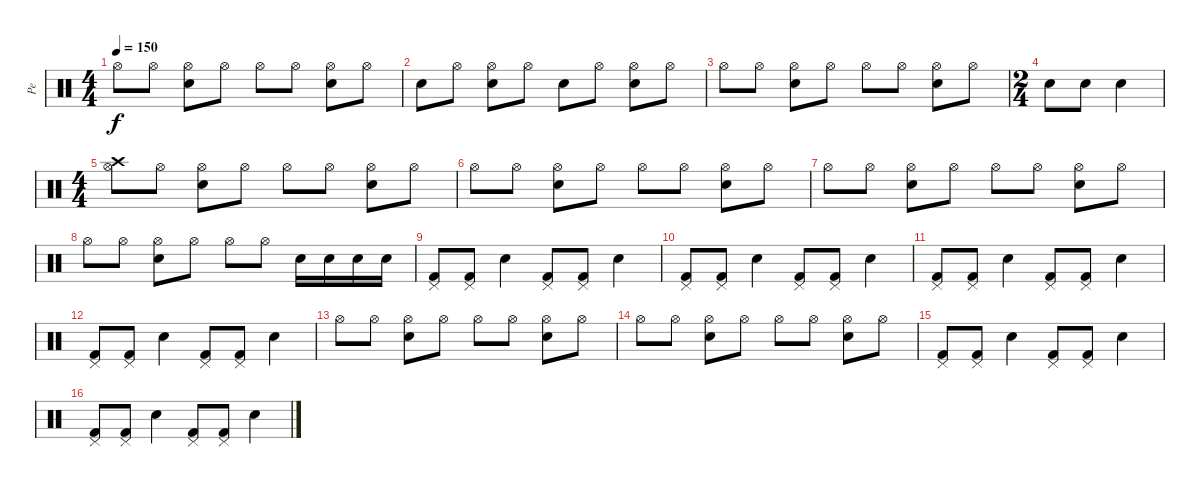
\track ("Pe" "Pe") {instrument percussion}
\staff {score}
\articulation defaults
\ts (4 4)
\tempo 150
\clef neutral
\ks c "Hi-Hat (open)".8{dy f} "Hi-Hat (open)".8
("Electric Snare (hit)" "Hi-Hat (open)").8 "Hi-Hat (open)".8 "Hi-Hat (open)".8 "Hi-Hat (open)".8 ("Electric Snare (hit)" "Hi-Hat (open)").8 "Hi-Hat (open)".8 |
"Electric Snare (hit)".8 "Hi-Hat (open)".8 ("Electric Snare (hit)" "Hi-Hat (open)").8 "Hi-Hat (open)".8 "Electric Snare (hit)".8 "Hi-Hat (open)".8 ("Electric Snare (hit)" "Hi-Hat (open)").8 "Hi-Hat (open)".8 |
"Hi-Hat (open)".8 "Hi-Hat (open)".8 ("Electric Snare (hit)" "Hi-Hat (open)").8 "Hi-Hat (open)".8 "Hi-Hat (open)".8 "Hi-Hat (open)".8 ("Electric Snare (hit)" "Hi-Hat (open)").8 "Hi-Hat (open)".8 |
\ts (2 4)
"Electric Snare (hit)".8 "Electric Snare (hit)".8 "Electric Snare (hit)".4 |
\ts (4 4)
("Hi-Hat (open)" "Crash high (hit)").8 "Hi-Hat (open)".8 ("Electric Snare (hit)" "Hi-Hat (open)").8 "Hi-Hat (open)".8 "Hi-Hat (open)".8 "Hi-Hat (open)".8 ("Electric Snare (hit)" "Hi-Hat (open)").8 "Hi-Hat (open)".8 |
"Hi-Hat (open)".8 "Hi-Hat (open)".8 ("Electric Snare (hit)" "Hi-Hat (open)").8 "Hi-Hat (open)".8 "Hi-Hat (open)".8 "Hi-Hat (open)".8 ("Electric Snare (hit)" "Hi-Hat (open)").8 "Hi-Hat (open)".8 |
"Hi-Hat (open)".8 "Hi-Hat (open)".8 ("Electric Snare (hit)" "Hi-Hat (open)").8 "Hi-Hat (open)".8 "Hi-Hat (open)".8 "Hi-Hat (open)".8 ("Electric Snare (hit)" "Hi-Hat (open)").8 "Hi-Hat (open)".8 |
"Hi-Hat (open)".8 "Hi-Hat (open)".8 ("Electric Snare (hit)" "Hi-Hat (open)").8 "Hi-Hat (open)".8 "Hi-Hat (open)".8 "Hi-Hat (open)".8 "Electric Snare (hit)".16 "Electric Snare (hit)".16 "Electric Snare (hit)".16 "Electric Snare (hit)".16 |
("Kick (hit) 2" "Pedal Hi-Hat (hit)").8 ("Kick (hit) 2" "Pedal Hi-Hat (hit)").8 "Electric Snare (hit)".4 ("Kick (hit) 2" "Pedal Hi-Hat (hit)").8 ("Kick (hit) 2" "Pedal Hi-Hat (hit)").8 "Electric Snare (hit)".4 |
("Kick (hit) 2" "Pedal Hi-Hat (hit)").8 ("Kick (hit) 2" "Pedal Hi-Hat (hit)").8 "Electric Snare (hit)".4 ("Kick (hit) 2" "Pedal Hi-Hat (hit)").8 ("Kick (hit) 2" "Pedal Hi-Hat (hit)").8 "Electric Snare (hit)".4 |
("Kick (hit) 2" "Pedal Hi-Hat (hit)").8 ("Kick (hit) 2" "Pedal Hi-Hat (hit)").8 "Electric Snare (hit)".4 ("Kick (hit) 2" "Pedal Hi-Hat (hit)").8 ("Kick (hit) 2" "Pedal Hi-Hat (hit)").8 "Electric Snare (hit)".4 |
("Kick (hit) 2" "Pedal Hi-Hat (hit)").8 ("Kick (hit) 2" "Pedal Hi-Hat (hit)").8 "Electric Snare (hit)".4 ("Kick (hit) 2" "Pedal Hi-Hat (hit)").8 ("Kick (hit) 2" "Pedal Hi-Hat (hit)").8 "Electric Snare (hit)".4 |
"Hi-Hat (open)".8 "Hi-Hat (open)".8 ("Electric Snare (hit)" "Hi-Hat (open)").8 "Hi-Hat (open)".8 "Hi-Hat (open)".8 "Hi-Hat (open)".8 ("Electric Snare (hit)" "Hi-Hat (open)").8 "Hi-Hat (open)".8 |
"Hi-Hat (open)".8 "Hi-Hat (open)".8 ("Electric Snare (hit)" "Hi-Hat (open)").8 "Hi-Hat (open)".8 "Hi-Hat (open)".8 "Hi-Hat (open)".8 ("Electric Snare (hit)" "Hi-Hat (open)").8 "Hi-Hat (open)".8 |
("Kick (hit) 2" "Pedal Hi-Hat (hit)").8 ("Kick (hit) 2" "Pedal Hi-Hat (hit)").8 "Electric Snare (hit)".4 ("Kick (hit) 2" "Pedal Hi-Hat (hit)").8 ("Kick (hit) 2" "Pedal Hi-Hat (hit)").8 "Electric Snare (hit)".4 |
("Kick (hit) 2" "Pedal Hi-Hat (hit)").8 ("Kick (hit) 2" "Pedal Hi-Hat (hit)").8 "Electric Snare (hit)".4 ("Kick (hit) 2" "Pedal Hi-Hat (hit)").8 ("Kick (hit) 2" "Pedal Hi-Hat (hit)").8 "Electric Snare (hit)".4
